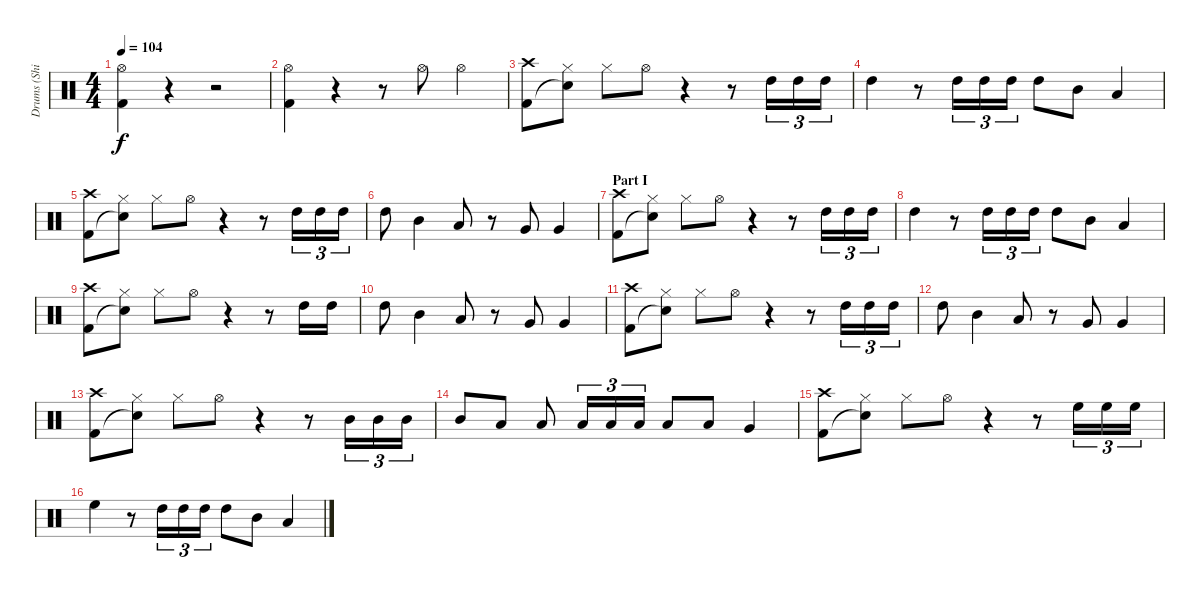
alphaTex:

\track ("Drums (Shinya)" "Drums (Shi") {instrument percussion}
\staff {score}
\articulation defaults
\ts (4 4)
\tempo 104
\clef neutral
\ks c
("Hi-Hat (open)" "Kick (hit) 2").4{dy f} r.4 r.2 |
("Hi-Hat (open)" "Kick (hit) 2").4 r.4 r.8 "Hi-Hat (open)".8 "Hi-Hat (open)".4 |
("Crash high (hit)" "Kick (hit) 2").8 ("Hi-Hat (closed)" "Snare (hit)"{t}).8 "Hi-Hat (closed)".8 "Hi-Hat (open)".8 r.4 r.8 "High Tom (hit)".16{tu (3 2)} "High Tom (hit)".16{tu (3 2)} "High Tom (hit)".16{tu (3 2)} |
"High Tom (hit)".4 r.8 "High Tom (hit)".16{tu (3 2)} "High Tom (hit)".16{tu (3 2)} "High Tom (hit)".16{tu (3 2)} "High Tom (hit)".8 "Mid Tom (hit)".8 "Low Tom (hit)".4 |
("Crash high (hit)" "Kick (hit) 2").8 ("Hi-Hat (closed)" "Snare (hit)"{t}).8 "Hi-Hat (closed)".8 "Hi-Hat (open)".8 r.4 r.8 "High Tom (hit)".16{tu (3 2)} "High Tom (hit)".16{tu (3 2)} "High Tom (hit)".16{tu (3 2)} |
"High Tom (hit)".8 "Mid Tom (hit)".4 "Low Tom (hit)".8 r.8 "Very Low Tom (hit)".8 "Very Low Tom (hit)".4 |
\section ("" "Part I")
("Crash high (hit)" "Kick (hit) 2").8 ("Hi-Hat (closed)" "Snare (hit)"{t}).8 "Hi-Hat (closed)".8 "Hi-Hat (open)".8 r.4 r.8 "High Tom (hit)".16{tu (3 2)} "High Tom (hit)".16{tu (3 2)} "High Tom (hit)".16{tu (3 2)} |
"High Tom (hit)".4 r.8 "High Tom (hit)".16{tu (3 2)} "High Tom (hit)".16{tu (3 2)} "High Tom (hit)".16{tu (3 2)} "High Tom (hit)".8 "Mid Tom (hit)".8 "Low Tom (hit)".4 |
("Crash high (hit)" "Kick (hit) 2").8 ("Hi-Hat (closed)" "Snare (hit)"{t}).8 "Hi-Hat (closed)".8 "Hi-Hat (open)".8 r.4 r.8 "High Tom (hit)".16 "High Tom (hit)".16 |
"High Tom (hit)".8 "Mid Tom (hit)".4 "Low Tom (hit)".8 r.8 "Very Low Tom (hit)".8 "Very Low Tom (hit)".4 |
("Crash high (hit)" "Kick (hit) 2").8 ("Hi-Hat (closed)" "Snare (hit)"{t}).8 "Hi-Hat (closed)".8 "Hi-Hat (open)".8 r.4 r.8 "High Tom (hit)".16{tu (3 2)} "High Tom (hit)".16{tu (3 2)} "High Tom (hit)".16{tu (3 2)} |
"High Tom (hit)".8 "Mid Tom (hit)".4 "Low Tom (hit)".8 r.8 "Very Low Tom (hit)".8 "Very Low Tom (hit)".4 |
("Crash high (hit)" "Kick (hit) 2").8 ("Hi-Hat (closed)" "Snare (hit)"{t}).8 "Hi-Hat (closed)".8 "Hi-Hat (open)".8 r.4 r.8 "Mid Tom (hit)".16{tu (3 2)} "Mid Tom (hit)".16{tu (3 2)} "Mid Tom (hit)".16{tu (3 2)} |
"Mid Tom (hit)".8 "Low Tom (hit)".8 "Low Tom (hit)".8 "Low Tom (hit)".16{tu (3 2)} "Low Tom (hit)".16{tu (3 2)} "Low Tom (hit)".16{tu (3 2)} "Low Tom (hit)".8 "Low Tom (hit)".8 "Very Low Tom (hit)".4 |
("Crash high (hit)" "Kick (hit) 2").8 ("Hi-Hat (closed)" "Snare (hit)"{t}).8 "Hi-Hat (closed)".8 "Hi-Hat (open)".8 r.4 r.8 "High Floor Tom (hit)".16{tu (3 2)} "High Floor Tom (hit)".16{tu (3 2)} "High Floor Tom (hit)".16{tu (3 2)} |
"High Floor Tom (hit)".4 r.8 "High Tom (hit)".16{tu (3 2)} "High Tom (hit)".16{tu (3 2)} "High Tom (hit)".16{tu (3 2)} "High Tom (hit)".8 "Mid Tom (hit)".8 "Low Tom (hit)".4
